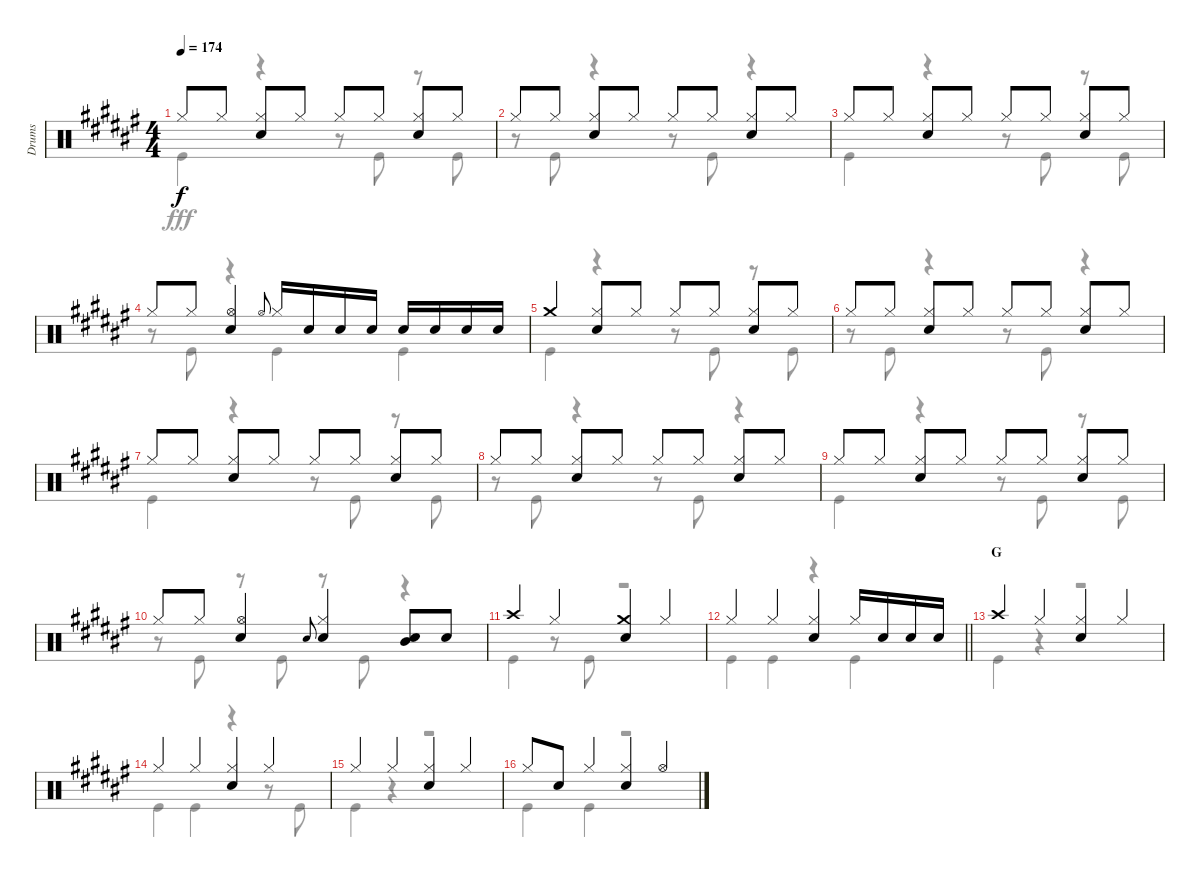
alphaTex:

\track ("Drums" "Drums") {instrument percussion}
\staff {score}
\articulation defaults
\voice
\ts (4 4)
\tempo 174
\clef neutral
\ks f# "Hi-Hat (closed)".8{dy f} "Hi-Hat (closed)".8
("Hi-Hat (closed)" "Snare (hit) 2").8 "Hi-Hat (closed)".8 "Hi-Hat (closed)".8 "Hi-Hat (closed)".8 ("Hi-Hat (closed)" "Snare (hit) 2").8 "Hi-Hat (closed)".8 |
"Hi-Hat (closed)".8 "Hi-Hat (closed)".8 ("Hi-Hat (closed)" "Snare (hit) 2").8 "Hi-Hat (closed)".8 "Hi-Hat (closed)".8 "Hi-Hat (closed)".8 ("Hi-Hat (closed)" "Snare (hit) 2").8 "Hi-Hat (closed)".8 |
"Hi-Hat (closed)".8 "Hi-Hat (closed)".8 ("Hi-Hat (closed)" "Snare (hit) 2").8 "Hi-Hat (closed)".8 "Hi-Hat (closed)".8 "Hi-Hat (closed)".8 ("Hi-Hat (closed)" "Snare (hit) 2").8 "Hi-Hat (closed)".8 |
"Hi-Hat (closed)".8 "Hi-Hat (closed)".8 ("Hi-Hat (open)" "Snare (hit) 2").4 "Hi-Hat (open)".8{gr onbeat} "Hi-Hat (closed)".16 "Snare (hit) 2".16 "Snare (hit) 2".16 "Snare (hit) 2".16 "Snare (hit) 2".16 "Snare (hit) 2".16 "Snare (hit) 2".16 "Snare (hit) 2".16 |
"Crash medium (hit)".4 ("Hi-Hat (closed)" "Snare (hit) 2").8 "Hi-Hat (closed)".8 "Hi-Hat (closed)".8 "Hi-Hat (closed)".8 ("Hi-Hat (closed)" "Snare (hit) 2").8 "Hi-Hat (closed)".8 |
"Hi-Hat (closed)".8 "Hi-Hat (closed)".8 ("Hi-Hat (closed)" "Snare (hit) 2").8 "Hi-Hat (closed)".8 "Hi-Hat (closed)".8 "Hi-Hat (closed)".8 ("Hi-Hat (closed)" "Snare (hit) 2").8 "Hi-Hat (closed)".8 |
"Hi-Hat (closed)".8 "Hi-Hat (closed)".8 ("Hi-Hat (closed)" "Snare (hit) 2").8 "Hi-Hat (closed)".8 "Hi-Hat (closed)".8 "Hi-Hat (closed)".8 ("Hi-Hat (closed)" "Snare (hit) 2").8 "Hi-Hat (closed)".8 |
"Hi-Hat (closed)".8 "Hi-Hat (closed)".8 ("Hi-Hat (closed)" "Snare (hit) 2").8 "Hi-Hat (closed)".8 "Hi-Hat (closed)".8 "Hi-Hat (closed)".8 ("Hi-Hat (closed)" "Snare (hit) 2").8 "Hi-Hat (closed)".8 |
"Hi-Hat (closed)".8 "Hi-Hat (closed)".8 ("Hi-Hat (closed)" "Snare (hit) 2").8 "Hi-Hat (closed)".8 "Hi-Hat (closed)".8 "Hi-Hat (closed)".8 ("Hi-Hat (closed)" "Snare (hit) 2").8 "Hi-Hat (closed)".8 |
"Hi-Hat (closed)".8 "Hi-Hat (closed)".8 ("Hi-Hat (open)" "Snare (hit) 2").4 "Snare (hit) 2".8{gr onbeat} ("Hi-Hat (closed)" "Snare (hit) 2").4 ("Mid Tom (hit)" "Snare (hit) 2").8 "Snare (hit) 2".8 |
"Crash high (hit)".4 "Hi-Hat (closed)".4 ("Crash medium (hit)" "Snare (hit) 2").4 "Hi-Hat (closed)".4 |
\barLineRight lightlight "Hi-Hat (closed)".4 "Hi-Hat (closed)".4
("Hi-Hat (closed)" "Snare (hit) 2").4 "Hi-Hat (closed)".16 "Snare (hit) 2".16 "Snare (hit) 2".16 "Snare (hit) 2".16 |
\section ("" "G")
"Crash high (hit)".4 "Hi-Hat (closed)".4 ("Hi-Hat (closed)" "Snare (hit) 2").4 "Hi-Hat (closed)".4 |
"Hi-Hat (closed)".4 "Hi-Hat (closed)".4 ("Hi-Hat (closed)" "Snare (hit) 2").4 "Hi-Hat (closed)".4 |
"Hi-Hat (closed)".4 "Hi-Hat (closed)".4 ("Hi-Hat (closed)" "Snare (hit) 2").4 "Hi-Hat (closed)".4 |
"Hi-Hat (closed)".8 "Snare (hit) 2".8 "Hi-Hat (closed)".4 ("Hi-Hat (closed)" "Snare (hit) 2").4 "Hi-Hat (open)".4
\voice
\clef neutral
\ottava regular
\simile none
\ks f# "Kick (hit)".4{dy fff}
r.4 r.8 "Kick (hit)".8 r.8 "Kick (hit)".8 |
r.8 "Kick (hit)".8 r.4 r.8 "Kick (hit)".8 r.4 |
"Kick (hit)".4 r.4 r.8 "Kick (hit)".8 r.8 "Kick (hit)".8 |
r.8 "Kick (hit)".8 r.4 "Kick (hit)".4 "Kick (hit)".4 |
"Kick (hit)".4 r.4 r.8 "Kick (hit)".8 r.8 "Kick (hit)".8 |
r.8 "Kick (hit)".8 r.4 r.8 "Kick (hit)".8 r.4 |
"Kick (hit)".4 r.4 r.8 "Kick (hit)".8 r.8 "Kick (hit)".8 |
r.8 "Kick (hit)".8 r.4 r.8 "Kick (hit)".8 r.4 |
"Kick (hit)".4 r.4 r.8 "Kick (hit)".8 r.8 "Kick (hit)".8 |
r.8 "Kick (hit)".8 r.8 "Kick (hit)".8 r.8 "Kick (hit)".8 r.4 |
"Kick (hit)".4 r.8 "Kick (hit)".8 r.2 |
\barLineRight lightlight "Kick (hit)".4 "Kick (hit)".4
r.4 "Kick (hit)".4 |
"Kick (hit)".4 r.4 r.2 |
"Kick (hit)".4 "Kick (hit)".4 r.4 r.8 "Kick (hit)".8 |
"Kick (hit)".4 r.4 r.2 |
"Kick (hit)".4 "Kick (hit)".4 r.2
